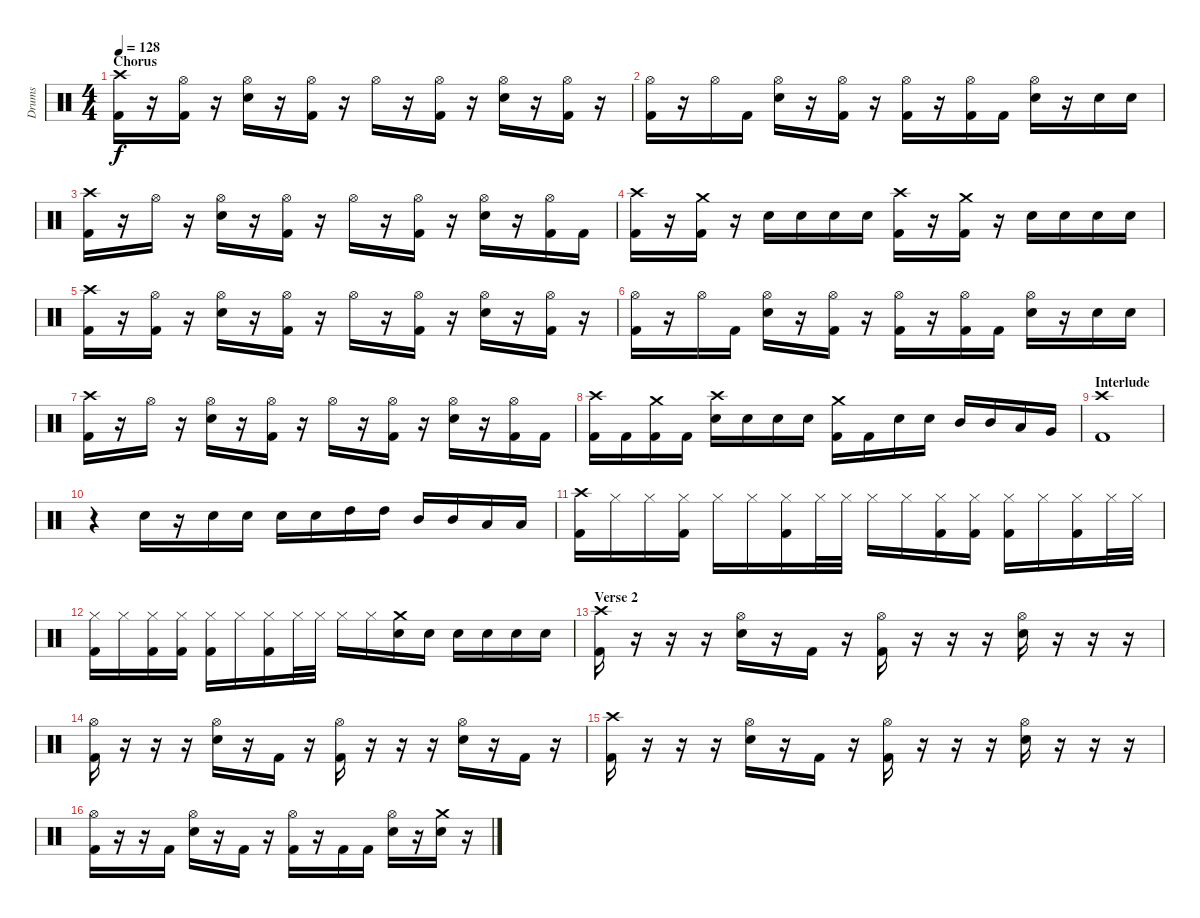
\track ("Drums" "Drums") {instrument percussion}
\staff {score}
\articulation defaults
\ts (4 4)
\section ("" "Chorus")
\tempo 128
\clef neutral
\ks c
("Crash high (hit)" "Kick (hit) 2").16{dy f} r.16 ("Hi-Hat (open)" "Kick (hit) 2").16 r.16 ("Hi-Hat (open)" "Snare (hit) 2").16 r.16 ("Hi-Hat (open)" "Kick (hit) 2").16 r.16 "Hi-Hat (open)".16 r.16 ("Hi-Hat (open)" "Kick (hit) 2").16 r.16 ("Hi-Hat (open)" "Snare (hit) 2").16 r.16 ("Hi-Hat (open)" "Kick (hit) 2").16 r.16 |
("Hi-Hat (open)" "Kick (hit) 2").16 r.16 "Hi-Hat (open)".16 "Kick (hit) 2".16 ("Hi-Hat (open)" "Snare (hit) 2").16 r.16 ("Hi-Hat (open)" "Kick (hit) 2").16 r.16 ("Hi-Hat (open)" "Kick (hit) 2").16 r.16 ("Hi-Hat (open)" "Kick (hit) 2").16 "Kick (hit) 2".16 ("Hi-Hat (open)" "Snare (hit) 2").16 r.16 "Snare (hit) 2".16 "Snare (hit) 2".16 |
("Crash high (hit)" "Kick (hit) 2").16 r.16 "Hi-Hat (open)".16 r.16 ("Hi-Hat (open)" "Snare (hit) 2").16 r.16 ("Hi-Hat (open)" "Kick (hit) 2").16 r.16 "Hi-Hat (open)".16 r.16 ("Hi-Hat (open)" "Kick (hit) 2").16 r.16 ("Hi-Hat (open)" "Snare (hit) 2").16 r.16 ("Hi-Hat (open)" "Kick (hit) 2").16 "Kick (hit) 2".16 |
("Crash high (hit)" "Kick (hit) 2").16 r.16 ("Crash medium (hit)" "Kick (hit) 2").16 r.16 "Snare (hit) 2".16 "Snare (hit) 2".16 "Snare (hit) 2".16 "Snare (hit) 2".16 ("Crash high (hit)" "Kick (hit) 2").16 r.16 ("Crash medium (hit)" "Kick (hit) 2").16 r.16 "Snare (hit) 2".16 "Snare (hit) 2".16 "Snare (hit) 2".16 "Snare (hit) 2".16 |
("Crash high (hit)" "Kick (hit) 2").16 r.16 ("Hi-Hat (open)" "Kick (hit) 2").16 r.16 ("Hi-Hat (open)" "Snare (hit) 2").16 r.16 ("Hi-Hat (open)" "Kick (hit) 2").16 r.16 "Hi-Hat (open)".16 r.16 ("Hi-Hat (open)" "Kick (hit) 2").16 r.16 ("Hi-Hat (open)" "Snare (hit) 2").16 r.16 ("Hi-Hat (open)" "Kick (hit) 2").16 r.16 |
("Hi-Hat (open)" "Kick (hit) 2").16 r.16 "Hi-Hat (open)".16 "Kick (hit) 2".16 ("Hi-Hat (open)" "Snare (hit) 2").16 r.16 ("Hi-Hat (open)" "Kick (hit) 2").16 r.16 ("Hi-Hat (open)" "Kick (hit) 2").16 r.16 ("Hi-Hat (open)" "Kick (hit) 2").16 "Kick (hit) 2".16 ("Hi-Hat (open)" "Snare (hit) 2").16 r.16 "Snare (hit) 2".16 "Snare (hit) 2".16 |
("Crash high (hit)" "Kick (hit) 2").16 r.16 "Hi-Hat (open)".16 r.16 ("Hi-Hat (open)" "Snare (hit) 2").16 r.16 ("Hi-Hat (open)" "Kick (hit) 2").16 r.16 "Hi-Hat (open)".16 r.16 ("Hi-Hat (open)" "Kick (hit) 2").16 r.16 ("Hi-Hat (open)" "Snare (hit) 2").16 r.16 ("Hi-Hat (open)" "Kick (hit) 2").16 "Kick (hit) 2".16 |
("Crash high (hit)" "Kick (hit) 2").16 "Kick (hit) 2".16 ("Crash medium (hit)" "Kick (hit) 2").16 "Kick (hit) 2".16 ("Crash high (hit)" "Snare (hit) 2").16 "Snare (hit) 2".16 "Snare (hit) 2".16 "Snare (hit) 2".16 ("Crash medium (hit)" "Kick (hit) 2").16 "Kick (hit) 2".16 "Snare (hit) 2".16 "Snare (hit) 2".16 "Mid Tom (hit)".16 "Mid Tom (hit)".16 "Low Tom (hit)".16 "Very Low Tom (hit)".16 |
\section ("" "Interlude")
("Crash high (hit)" "Kick (hit) 2").1 |
r.4 "Snare (hit) 2".16 r.16 "Snare (hit) 2".16 "Snare (hit) 2".16 "Snare (hit) 2".16 "Snare (hit) 2".16 "High Tom (hit)".16 "High Tom (hit)".16 "Mid Tom (hit)".16 "Mid Tom (hit)".16 "Low Tom (hit)".16 "Low Tom (hit)".16 |
("Crash high (hit)" "Kick (hit) 2").16 "Hi-Hat (closed)".16 "Hi-Hat (closed)".16 ("Hi-Hat (closed)" "Kick (hit) 2").16 "Hi-Hat (closed)".16 "Hi-Hat (closed)".16 ("Hi-Hat (closed)" "Kick (hit) 2").16 "Hi-Hat (closed)".32 "Hi-Hat (closed)".32 "Hi-Hat (closed)".16 "Hi-Hat (closed)".16 ("Hi-Hat (closed)" "Kick (hit) 2").16 ("Hi-Hat (closed)" "Kick (hit) 2").16 ("Hi-Hat (closed)" "Kick (hit) 2").16 "Hi-Hat (closed)".16 ("Hi-Hat (closed)" "Kick (hit) 2").16 "Hi-Hat (closed)".32 "Hi-Hat (closed)".32 |
("Hi-Hat (closed)" "Kick (hit) 2").16 "Hi-Hat (closed)".16 ("Hi-Hat (closed)" "Kick (hit) 2").16 ("Hi-Hat (closed)" "Kick (hit) 2").16 ("Hi-Hat (closed)" "Kick (hit) 2").16 "Hi-Hat (closed)".16 ("Hi-Hat (closed)" "Kick (hit) 2").16 "Hi-Hat (closed)".32 "Hi-Hat (closed)".32 "Hi-Hat (closed)".16 "Hi-Hat (closed)".16 ("Crash medium (hit)" "Snare (hit) 2").16 "Snare (hit) 2".16 "Snare (hit) 2".16 "Snare (hit) 2".16 "Snare (hit) 2".16 "Snare (hit) 2".16 |
\section ("" "Verse 2")
("Crash high (hit)" "Kick (hit) 2").16 r.16 r.16 r.16 ("Hi-Hat (open)" "Snare (hit) 2").16 r.16 "Kick (hit) 2".16 r.16 ("Hi-Hat (open)" "Kick (hit) 2").16 r.16 r.16 r.16 ("Hi-Hat (open)" "Snare (hit) 2").16 r.16 r.16 r.16 |
("Hi-Hat (open)" "Kick (hit) 2").16 r.16 r.16 r.16 ("Hi-Hat (open)" "Snare (hit) 2").16 r.16 "Kick (hit) 2".16 r.16 ("Hi-Hat (open)" "Kick (hit) 2").16 r.16 r.16 r.16 ("Hi-Hat (open)" "Snare (hit) 2").16 r.16 "Kick (hit) 2".16 r.16 |
("Crash high (hit)" "Kick (hit) 2").16 r.16 r.16 r.16 ("Hi-Hat (open)" "Snare (hit) 2").16 r.16 "Kick (hit) 2".16 r.16 ("Hi-Hat (open)" "Kick (hit) 2").16 r.16 r.16 r.16 ("Hi-Hat (open)" "Snare (hit) 2").16 r.16 r.16 r.16 |
("Hi-Hat (open)" "Kick (hit) 2").16 r.16 r.16 "Kick (hit) 2".16 ("Hi-Hat (open)" "Snare (hit) 2").16 r.16 "Kick (hit) 2".16 r.16 ("Hi-Hat (open)" "Kick (hit) 2").16 r.16 "Kick (hit) 2".16 "Kick (hit) 2".16 ("Hi-Hat (open)" "Snare (hit) 2").16 r.16 ("Crash medium (hit)" "Snare (hit) 2").16 r.16
